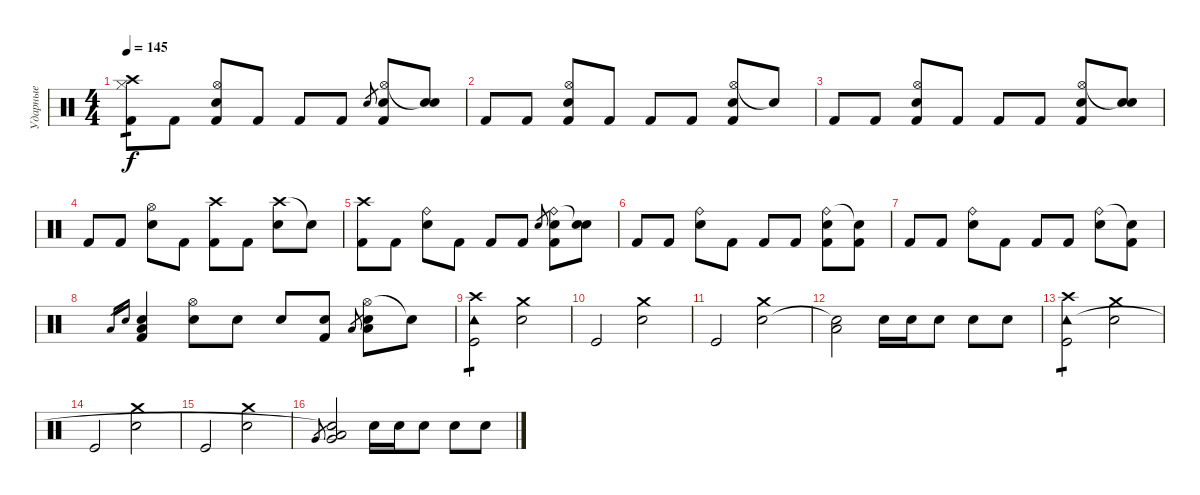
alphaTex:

\track ("Ударные" "Ударные") {instrument percussion}
\staff {score}
\articulation defaults
\ts (4 4)
\tempo 145
\clef neutral
\ks c
("Hi-Hat (closed)" "Crash high (hit)" "Kick (hit) 2").8{tp 1 dy f} "Kick (hit) 2".8 ("Hi-Hat (open)" "Snare (hit) 2" "Kick (hit) 2").8 "Kick (hit) 2".8 "Kick (hit) 2".8 "Kick (hit) 2".8 "Snare (hit) 2".8{gr} ("Hi-Hat (open)" "Snare (hit) 2" "Kick (hit) 2").8 ("Snare (hit)"{t} "Snare (hit) 2").8 |
"Kick (hit) 2".8 "Kick (hit) 2".8 ("Hi-Hat (open)" "Snare (hit) 2" "Kick (hit) 2").8 "Kick (hit) 2".8 "Kick (hit) 2".8 "Kick (hit) 2".8 ("Hi-Hat (open)" "Snare (hit) 2" "Kick (hit) 2").8 "Snare (hit)"{t}.8 |
"Kick (hit) 2".8 "Kick (hit) 2".8 ("Hi-Hat (open)" "Snare (hit) 2" "Kick (hit) 2").8 "Kick (hit) 2".8 "Kick (hit) 2".8 "Kick (hit) 2".8 ("Hi-Hat (open)" "Snare (hit) 2" "Kick (hit) 2").8 ("Snare (hit)"{t} "Snare (hit) 2").8 |
"Kick (hit) 2".8 "Kick (hit) 2".8 ("Hi-Hat (open)" "Snare (hit) 2").8 "Kick (hit) 2".8 ("Crash high (hit)" "Kick (hit) 2").8 "Kick (hit) 2".8 ("Crash high (hit)" "Snare (hit) 2").8 "Snare (hit)"{t}.8 |
("Crash high (hit)" "Kick (hit) 2").8 "Kick (hit) 2".8 ("Ride (bell)" "Snare (hit) 2").8 "Kick (hit) 2".8 "Kick (hit) 2".8 "Kick (hit) 2".8 "Snare (hit) 2".8{gr} ("Ride (bell)" "Snare (hit) 2" "Kick (hit) 2").8 ("Snare (hit)"{t} "Snare (hit) 2").8 |
"Kick (hit) 2".8 "Kick (hit) 2".8 ("Ride (bell)" "Snare (hit) 2").8 "Kick (hit) 2".8 "Kick (hit) 2".8 "Kick (hit) 2".8 ("Ride (bell)" "Snare (hit) 2" "Kick (hit) 2").8 ("Snare (hit)"{t} "Kick (hit) 2").8 |
"Kick (hit) 2".8 "Kick (hit) 2".8 ("Ride (bell)" "Snare (hit) 2").8 "Kick (hit) 2".8 "Kick (hit) 2".8 "Kick (hit) 2".8 ("Ride (bell)" "Snare (hit) 2").8 ("Snare (hit)"{t} "Kick (hit) 2").8 |
"Low Floor Tom (hit)".16{gr} "Snare (hit) 2".16{gr} ("Low Floor Tom (hit)" "Snare (hit) 2" "Kick (hit) 2").4 ("Hi-Hat (open)" "Snare (hit) 2").8 "Snare (hit) 2".8 "Snare (hit) 2".8 ("Snare (hit) 2" "Kick (hit) 2").8 "Low Floor Tom (hit)".8{gr} ("Hi-Hat (open)" "Low Floor Tom (hit)" "Snare (hit) 2").8 "Snare (hit)"{t}.8 |
("Crash high (hit)" "Kick (hit)" "Tambourine (hit)").2{tp 1} ("Crash medium (hit)" "Electric Snare (hit)").2 |
"Kick (hit)".2 ("Crash medium (hit)" "Electric Snare (hit)").2 |
"Kick (hit)".2 ("Crash medium (hit)" "Electric Snare (hit)").2 |
("Low Floor Tom (hit)" "Snare (hit)"{t}).2 "Snare (hit) 2".16 "Snare (hit) 2".16 "Snare (hit) 2".8 "Snare (hit) 2".8 "Snare (hit) 2".8 |
("Crash high (hit)" "Kick (hit)" "Tambourine (hit)").2{tp 1} ("Crash medium (hit)" "Electric Snare (hit)").2 |
"Kick (hit)".2 ("Crash medium (hit)" "Electric Snare (hit)").2 |
"Kick (hit)".2 ("Crash medium (hit)" "Electric Snare (hit)").2 |
"Very Low Tom (hit)".8{gr} ("Very Low Tom (hit)" "Low Floor Tom (hit)" "Snare (hit)"{t}).2 "Snare (hit) 2".16 "Snare (hit) 2".16 "Snare (hit) 2".8 "Snare (hit) 2".8 "Snare (hit) 2".8
